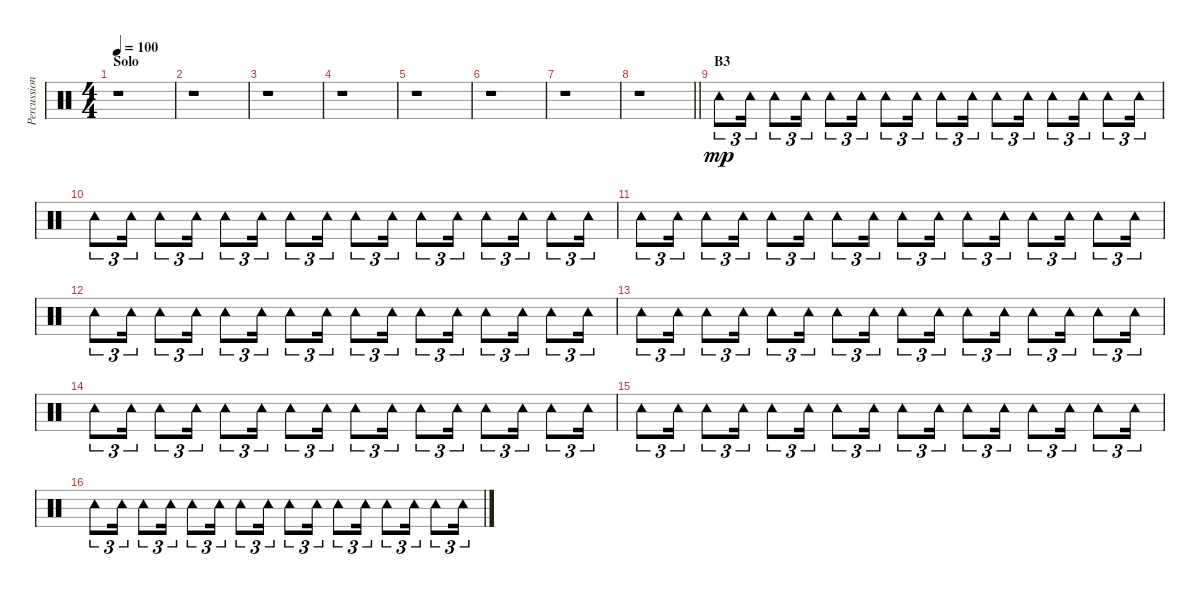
\track ("Percussion" "Percussion") {instrument percussion}
\staff {score}
\articulation defaults
\ts (4 4)
\section ("" "Solo")
\tempo 100
\clef neutral
\ks c
r.1{dy mp} |
r.1 |
r.1 |
r.1 |
r.1 |
r.1 |
r.1 |
\barLineRight lightlight
r.1 |
\section ("" "B3")
"Tambourine (hit)".8{tu (3 2)} "Tambourine (hit)".16{tu (3 2)} "Tambourine (hit)".8{tu (3 2)} "Tambourine (hit)".16{tu (3 2)} "Tambourine (hit)".8{tu (3 2)} "Tambourine (hit)".16{tu (3 2)} "Tambourine (hit)".8{tu (3 2)} "Tambourine (hit)".16{tu (3 2)} "Tambourine (hit)".8{tu (3 2)} "Tambourine (hit)".16{tu (3 2)} "Tambourine (hit)".8{tu (3 2)} "Tambourine (hit)".16{tu (3 2)} "Tambourine (hit)".8{tu (3 2)} "Tambourine (hit)".16{tu (3 2)} "Tambourine (hit)".8{tu (3 2)} "Tambourine (hit)".16{tu (3 2)} |
"Tambourine (hit)".8{tu (3 2)} "Tambourine (hit)".16{tu (3 2)} "Tambourine (hit)".8{tu (3 2)} "Tambourine (hit)".16{tu (3 2)} "Tambourine (hit)".8{tu (3 2)} "Tambourine (hit)".16{tu (3 2)} "Tambourine (hit)".8{tu (3 2)} "Tambourine (hit)".16{tu (3 2)} "Tambourine (hit)".8{tu (3 2)} "Tambourine (hit)".16{tu (3 2)} "Tambourine (hit)".8{tu (3 2)} "Tambourine (hit)".16{tu (3 2)} "Tambourine (hit)".8{tu (3 2)} "Tambourine (hit)".16{tu (3 2)} "Tambourine (hit)".8{tu (3 2)} "Tambourine (hit)".16{tu (3 2)} |
"Tambourine (hit)".8{tu (3 2)} "Tambourine (hit)".16{tu (3 2)} "Tambourine (hit)".8{tu (3 2)} "Tambourine (hit)".16{tu (3 2)} "Tambourine (hit)".8{tu (3 2)} "Tambourine (hit)".16{tu (3 2)} "Tambourine (hit)".8{tu (3 2)} "Tambourine (hit)".16{tu (3 2)} "Tambourine (hit)".8{tu (3 2)} "Tambourine (hit)".16{tu (3 2)} "Tambourine (hit)".8{tu (3 2)} "Tambourine (hit)".16{tu (3 2)} "Tambourine (hit)".8{tu (3 2)} "Tambourine (hit)".16{tu (3 2)} "Tambourine (hit)".8{tu (3 2)} "Tambourine (hit)".16{tu (3 2)} |
"Tambourine (hit)".8{tu (3 2)} "Tambourine (hit)".16{tu (3 2)} "Tambourine (hit)".8{tu (3 2)} "Tambourine (hit)".16{tu (3 2)} "Tambourine (hit)".8{tu (3 2)} "Tambourine (hit)".16{tu (3 2)} "Tambourine (hit)".8{tu (3 2)} "Tambourine (hit)".16{tu (3 2)} "Tambourine (hit)".8{tu (3 2)} "Tambourine (hit)".16{tu (3 2)} "Tambourine (hit)".8{tu (3 2)} "Tambourine (hit)".16{tu (3 2)} "Tambourine (hit)".8{tu (3 2)} "Tambourine (hit)".16{tu (3 2)} "Tambourine (hit)".8{tu (3 2)} "Tambourine (hit)".16{tu (3 2)} |
"Tambourine (hit)".8{tu (3 2)} "Tambourine (hit)".16{tu (3 2)} "Tambourine (hit)".8{tu (3 2)} "Tambourine (hit)".16{tu (3 2)} "Tambourine (hit)".8{tu (3 2)} "Tambourine (hit)".16{tu (3 2)} "Tambourine (hit)".8{tu (3 2)} "Tambourine (hit)".16{tu (3 2)} "Tambourine (hit)".8{tu (3 2)} "Tambourine (hit)".16{tu (3 2)} "Tambourine (hit)".8{tu (3 2)} "Tambourine (hit)".16{tu (3 2)} "Tambourine (hit)".8{tu (3 2)} "Tambourine (hit)".16{tu (3 2)} "Tambourine (hit)".8{tu (3 2)} "Tambourine (hit)".16{tu (3 2)} |
"Tambourine (hit)".8{tu (3 2)} "Tambourine (hit)".16{tu (3 2)} "Tambourine (hit)".8{tu (3 2)} "Tambourine (hit)".16{tu (3 2)} "Tambourine (hit)".8{tu (3 2)} "Tambourine (hit)".16{tu (3 2)} "Tambourine (hit)".8{tu (3 2)} "Tambourine (hit)".16{tu (3 2)} "Tambourine (hit)".8{tu (3 2)} "Tambourine (hit)".16{tu (3 2)} "Tambourine (hit)".8{tu (3 2)} "Tambourine (hit)".16{tu (3 2)} "Tambourine (hit)".8{tu (3 2)} "Tambourine (hit)".16{tu (3 2)} "Tambourine (hit)".8{tu (3 2)} "Tambourine (hit)".16{tu (3 2)} |
"Tambourine (hit)".8{tu (3 2)} "Tambourine (hit)".16{tu (3 2)} "Tambourine (hit)".8{tu (3 2)} "Tambourine (hit)".16{tu (3 2)} "Tambourine (hit)".8{tu (3 2)} "Tambourine (hit)".16{tu (3 2)} "Tambourine (hit)".8{tu (3 2)} "Tambourine (hit)".16{tu (3 2)} "Tambourine (hit)".8{tu (3 2)} "Tambourine (hit)".16{tu (3 2)} "Tambourine (hit)".8{tu (3 2)} "Tambourine (hit)".16{tu (3 2)} "Tambourine (hit)".8{tu (3 2)} "Tambourine (hit)".16{tu (3 2)} "Tambourine (hit)".8{tu (3 2)} "Tambourine (hit)".16{tu (3 2)} |
"Tambourine (hit)".8{tu (3 2)} "Tambourine (hit)".16{tu (3 2)} "Tambourine (hit)".8{tu (3 2)} "Tambourine (hit)".16{tu (3 2)} "Tambourine (hit)".8{tu (3 2)} "Tambourine (hit)".16{tu (3 2)} "Tambourine (hit)".8{tu (3 2)} "Tambourine (hit)".16{tu (3 2)} "Tambourine (hit)".8{tu (3 2)} "Tambourine (hit)".16{tu (3 2)} "Tambourine (hit)".8{tu (3 2)} "Tambourine (hit)".16{tu (3 2)} "Tambourine (hit)".8{tu (3 2)} "Tambourine (hit)".16{tu (3 2)} "Tambourine (hit)".8{tu (3 2)} "Tambourine (hit)".16{tu (3 2)}
